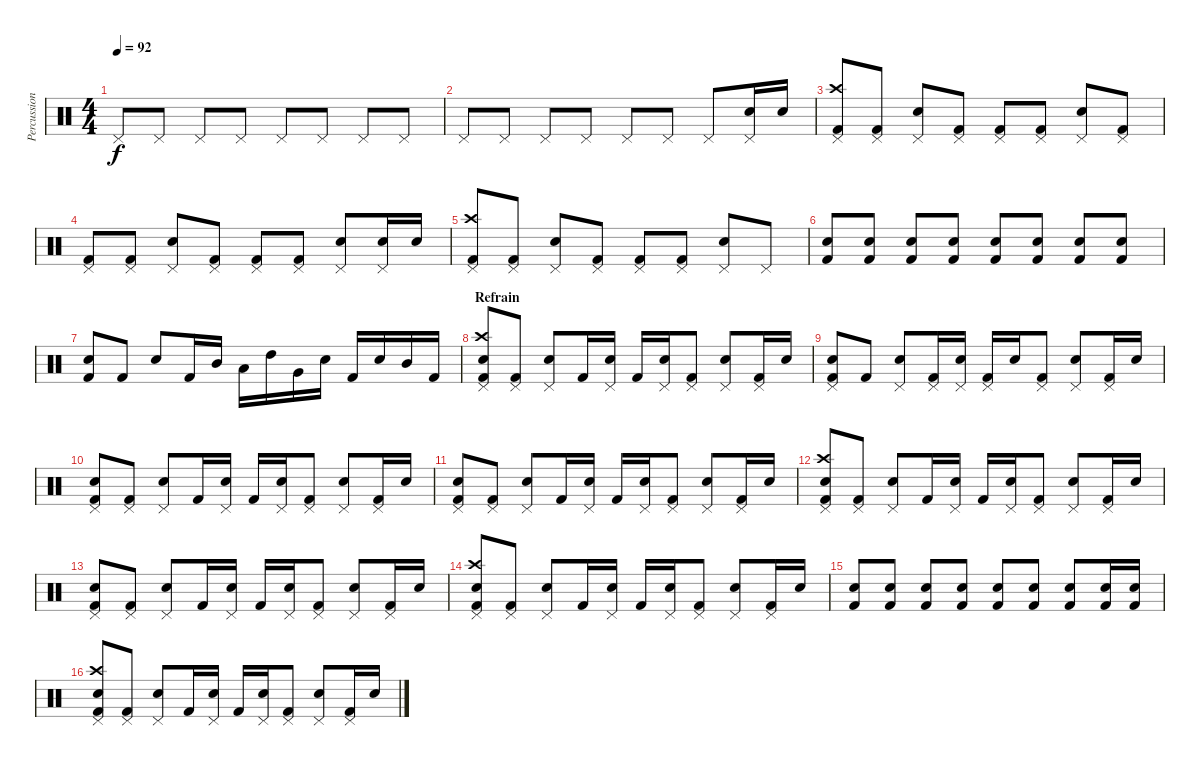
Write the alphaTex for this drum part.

\track ("Percussions" "Percussion") {instrument percussion}
\staff {score}
\articulation defaults
\ts (4 4)
\tempo 92
\clef neutral
\ks c "Pedal Hi-Hat (hit)".8{dy f} "Pedal Hi-Hat (hit)".8 "Pedal Hi-Hat (hit)".8 "Pedal Hi-Hat (hit)".8 "Pedal Hi-Hat (hit)".8 "Pedal Hi-Hat (hit)".8 "Pedal Hi-Hat (hit)".8 "Pedal Hi-Hat (hit)".8
|
"Pedal Hi-Hat (hit)".8 "Pedal Hi-Hat (hit)".8 "Pedal Hi-Hat (hit)".8 "Pedal Hi-Hat (hit)".8 "Pedal Hi-Hat (hit)".8 "Pedal Hi-Hat (hit)".8 "Pedal Hi-Hat (hit)".8 ("Pedal Hi-Hat (hit)" "Electric Snare (hit)").16 "Electric Snare (hit)".16 |
("Pedal Hi-Hat (hit)" "Crash high (hit)" "Kick (hit) 2").8 ("Pedal Hi-Hat (hit)" "Kick (hit) 2").8 ("Pedal Hi-Hat (hit)" "Electric Snare (hit)").8 ("Pedal Hi-Hat (hit)" "Kick (hit) 2").8 ("Pedal Hi-Hat (hit)" "Kick (hit) 2").8 ("Pedal Hi-Hat (hit)" "Kick (hit) 2").8 ("Pedal Hi-Hat (hit)" "Electric Snare (hit)").8 ("Pedal Hi-Hat (hit)" "Kick (hit) 2").8 |
("Pedal Hi-Hat (hit)" "Kick (hit) 2").8 ("Pedal Hi-Hat (hit)" "Kick (hit) 2").8 ("Pedal Hi-Hat (hit)" "Electric Snare (hit)").8 ("Pedal Hi-Hat (hit)" "Kick (hit) 2").8 ("Pedal Hi-Hat (hit)" "Kick (hit) 2").8 ("Pedal Hi-Hat (hit)" "Kick (hit) 2").8 ("Pedal Hi-Hat (hit)" "Electric Snare (hit)").8 ("Pedal Hi-Hat (hit)" "Electric Snare (hit)").16 "Electric Snare (hit)".16 |
("Pedal Hi-Hat (hit)" "Crash high (hit)" "Kick (hit) 2").8 ("Pedal Hi-Hat (hit)" "Kick (hit) 2").8 ("Pedal Hi-Hat (hit)" "Electric Snare (hit)").8 ("Pedal Hi-Hat (hit)" "Kick (hit) 2").8 ("Pedal Hi-Hat (hit)" "Kick (hit) 2").8 ("Pedal Hi-Hat (hit)" "Kick (hit) 2").8 ("Pedal Hi-Hat (hit)" "Electric Snare (hit)").8 "Pedal Hi-Hat (hit)".8 |
("Electric Snare (hit)" "Kick (hit) 2").8 ("Electric Snare (hit)" "Kick (hit) 2").8 ("Electric Snare (hit)" "Kick (hit) 2").8 ("Electric Snare (hit)" "Kick (hit) 2").8 ("Electric Snare (hit)" "Kick (hit) 2").8 ("Electric Snare (hit)" "Kick (hit) 2").8 ("Electric Snare (hit)" "Kick (hit) 2").8 ("Electric Snare (hit)" "Kick (hit) 2").8 |
("Electric Snare (hit)" "Kick (hit) 2").8 "Kick (hit) 2".8 "Electric Snare (hit)".8 "Kick (hit) 2".16 "Mid Tom (hit)".16 "Low Tom (hit)".16 "High Tom (hit)".16 "Very Low Tom (hit)".16 "Electric Snare (hit)".16 "Kick (hit) 2".16 "Electric Snare (hit)".16 "Mid Tom (hit)".16 "Kick (hit) 2".16 |
\section ("" "Refrain")
("Pedal Hi-Hat (hit)" "Crash high (hit)" "Electric Snare (hit)" "Kick (hit) 2").8 ("Pedal Hi-Hat (hit)" "Kick (hit) 2").8 ("Pedal Hi-Hat (hit)" "Electric Snare (hit)").8 "Kick (hit) 2".16 ("Pedal Hi-Hat (hit)" "Electric Snare (hit)").16 "Kick (hit) 2".16 ("Pedal Hi-Hat (hit)" "Electric Snare (hit)").16 ("Pedal Hi-Hat (hit)" "Kick (hit) 2").8 ("Pedal Hi-Hat (hit)" "Electric Snare (hit)").8 ("Pedal Hi-Hat (hit)" "Kick (hit) 2").16 "Electric Snare (hit)".16 |
("Pedal Hi-Hat (hit)" "Electric Snare (hit)" "Kick (hit) 2").8 "Kick (hit) 2".8 ("Pedal Hi-Hat (hit)" "Electric Snare (hit)").8 ("Pedal Hi-Hat (hit)" "Kick (hit) 2").16 ("Pedal Hi-Hat (hit)" "Electric Snare (hit)").16 ("Pedal Hi-Hat (hit)" "Kick (hit) 2").16 "Electric Snare (hit)".16 ("Pedal Hi-Hat (hit)" "Kick (hit) 2").8 ("Pedal Hi-Hat (hit)" "Electric Snare (hit)").8 ("Pedal Hi-Hat (hit)" "Kick (hit) 2").16 "Electric Snare (hit)".16 |
("Pedal Hi-Hat (hit)" "Electric Snare (hit)" "Kick (hit) 2").8 ("Pedal Hi-Hat (hit)" "Kick (hit) 2").8 ("Pedal Hi-Hat (hit)" "Electric Snare (hit)").8 "Kick (hit) 2".16 ("Pedal Hi-Hat (hit)" "Electric Snare (hit)").16 "Kick (hit) 2".16 ("Pedal Hi-Hat (hit)" "Electric Snare (hit)").16 ("Pedal Hi-Hat (hit)" "Kick (hit) 2").8 ("Pedal Hi-Hat (hit)" "Electric Snare (hit)").8 ("Pedal Hi-Hat (hit)" "Kick (hit) 2").16 "Electric Snare (hit)".16 |
("Pedal Hi-Hat (hit)" "Electric Snare (hit)" "Kick (hit) 2").8 ("Pedal Hi-Hat (hit)" "Kick (hit) 2").8 ("Pedal Hi-Hat (hit)" "Electric Snare (hit)").8 "Kick (hit) 2".16 ("Pedal Hi-Hat (hit)" "Electric Snare (hit)").16 "Kick (hit) 2".16 ("Pedal Hi-Hat (hit)" "Electric Snare (hit)").16 ("Pedal Hi-Hat (hit)" "Kick (hit) 2").8 ("Pedal Hi-Hat (hit)" "Electric Snare (hit)").8 ("Pedal Hi-Hat (hit)" "Kick (hit) 2").16 "Electric Snare (hit)".16 |
("Pedal Hi-Hat (hit)" "Crash high (hit)" "Electric Snare (hit)" "Kick (hit) 2").8 ("Pedal Hi-Hat (hit)" "Kick (hit) 2").8 ("Pedal Hi-Hat (hit)" "Electric Snare (hit)").8 "Kick (hit) 2".16 ("Pedal Hi-Hat (hit)" "Electric Snare (hit)").16 "Kick (hit) 2".16 ("Pedal Hi-Hat (hit)" "Electric Snare (hit)").16 ("Pedal Hi-Hat (hit)" "Kick (hit) 2").8 ("Pedal Hi-Hat (hit)" "Electric Snare (hit)").8 ("Pedal Hi-Hat (hit)" "Kick (hit) 2").16 "Electric Snare (hit)".16 |
("Pedal Hi-Hat (hit)" "Electric Snare (hit)" "Kick (hit) 2").8 ("Pedal Hi-Hat (hit)" "Kick (hit) 2").8 ("Pedal Hi-Hat (hit)" "Electric Snare (hit)").8 "Kick (hit) 2".16 ("Pedal Hi-Hat (hit)" "Electric Snare (hit)").16 "Kick (hit) 2".16 ("Pedal Hi-Hat (hit)" "Electric Snare (hit)").16 ("Pedal Hi-Hat (hit)" "Kick (hit) 2").8 ("Pedal Hi-Hat (hit)" "Electric Snare (hit)").8 ("Pedal Hi-Hat (hit)" "Kick (hit) 2").16 "Electric Snare (hit)".16 |
("Pedal Hi-Hat (hit)" "Crash high (hit)" "Electric Snare (hit)" "Kick (hit) 2").8 ("Pedal Hi-Hat (hit)" "Kick (hit) 2").8 ("Pedal Hi-Hat (hit)" "Electric Snare (hit)").8 "Kick (hit) 2".16 ("Pedal Hi-Hat (hit)" "Electric Snare (hit)").16 "Kick (hit) 2".16 ("Pedal Hi-Hat (hit)" "Electric Snare (hit)").16 ("Pedal Hi-Hat (hit)" "Kick (hit) 2").8 ("Pedal Hi-Hat (hit)" "Electric Snare (hit)").8 ("Pedal Hi-Hat (hit)" "Kick (hit) 2").16 "Electric Snare (hit)".16 |
("Electric Snare (hit)" "Kick (hit) 2").8 ("Electric Snare (hit)" "Kick (hit) 2").8 ("Electric Snare (hit)" "Kick (hit) 2").8 ("Electric Snare (hit)" "Kick (hit) 2").8 ("Electric Snare (hit)" "Kick (hit) 2").8 ("Electric Snare (hit)" "Kick (hit) 2").8 ("Electric Snare (hit)" "Kick (hit) 2").8 ("Electric Snare (hit)" "Kick (hit) 2").16 ("Electric Snare (hit)" "Kick (hit) 2").16 |
("Pedal Hi-Hat (hit)" "Crash high (hit)" "Electric Snare (hit)" "Kick (hit) 2").8 ("Pedal Hi-Hat (hit)" "Kick (hit) 2").8 ("Pedal Hi-Hat (hit)" "Electric Snare (hit)").8 "Kick (hit) 2".16 ("Pedal Hi-Hat (hit)" "Electric Snare (hit)").16 "Kick (hit) 2".16 ("Pedal Hi-Hat (hit)" "Electric Snare (hit)").16 ("Pedal Hi-Hat (hit)" "Kick (hit) 2").8 ("Pedal Hi-Hat (hit)" "Electric Snare (hit)").8 ("Pedal Hi-Hat (hit)" "Kick (hit) 2").16 "Electric Snare (hit)".16
